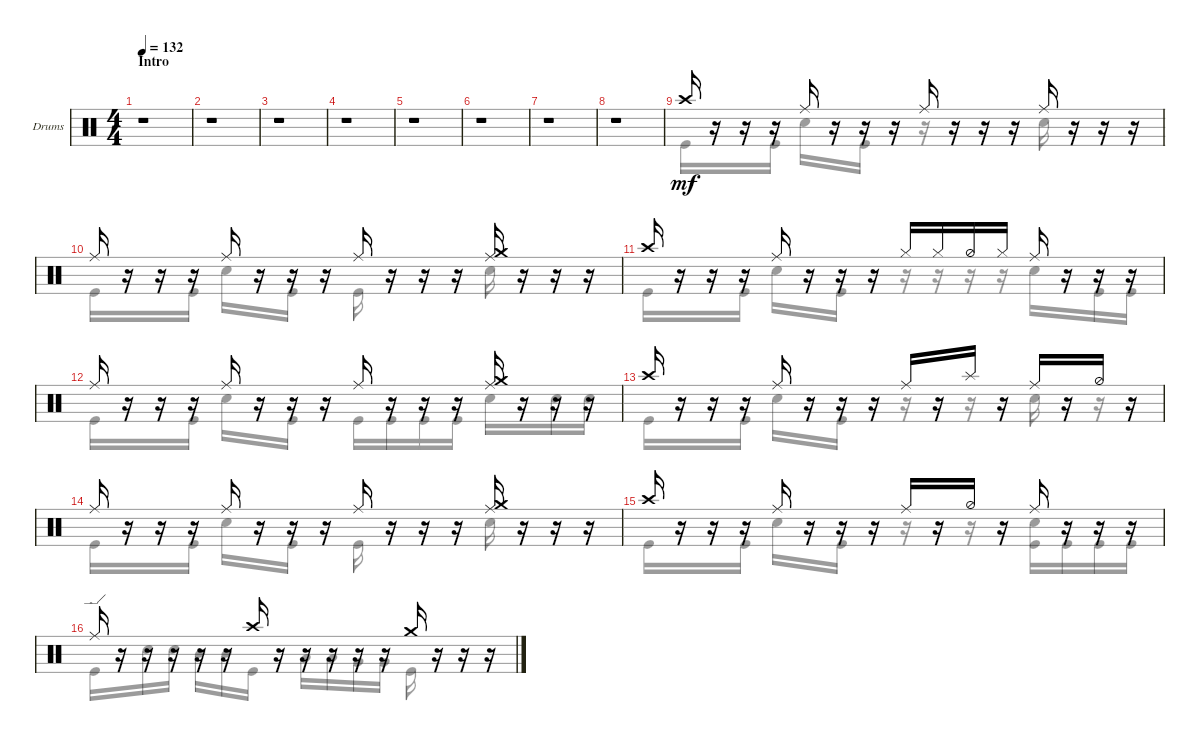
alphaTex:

\defaultSystemsLayout 4
\bracketExtendMode groupsimilarinstruments
\firstSystemTrackNameOrientation horizontal
\otherSystemsTrackNameOrientation horizontal
\track ("Drumkit" "Drums") {instrument percussion}
\staff {score}
\articulation defaults
\voice
\ts (4 4)
\section ("" "Intro")
\tempo 132
\clef neutral
\scale
0.474178
\ks c
r.1{dy mf} |
\scale
0.262911 r.1 |
\scale
0.262911 r.1 |
\scale
0.333333 r.1 |
\scale
0.333333 r.1 |
\scale
0.333333 r.1 |
\scale
0.333333 r.1 |
\scale
0.333333 r.1 |
\scale
0.333333 "Crash high (hit)".16 r.16 r.16 r.16 "Ride (middle)".16 r.16 r.16 r.16 "Ride (middle)".16 r.16 r.16 r.16 "Ride (middle)".16 r.16 r.16 r.16 |
\scale
0.333333 "Ride (middle)".16 r.16 r.16 r.16 "Ride (middle)".16 r.16 r.16 r.16 "Ride (middle)".16 r.16 r.16 r.16 ("Crash medium (hit)" "Ride (middle)").16 r.16 r.16 r.16 |
\scale
0.333333 "Crash high (hit)".16 r.16 r.16 r.16 "Ride (middle)".16 r.16 r.16 r.16 "Hi-Hat (closed)".16 "Hi-Hat (closed)".16 "Hi-Hat (half)".16 "Hi-Hat (closed)".16 "Ride (middle)".16 r.16 r.16 r.16 |
\scale
0.333333 "Ride (middle)".16 r.16 r.16 r.16 "Ride (middle)".16 r.16 r.16 r.16 "Ride (middle)".16 r.16 r.16 r.16 ("Crash medium (hit)" "Ride (middle)").16 r.16 r.16 r.16 |
\scale
0.333333 "Crash high (hit)".16 r.16 r.16 r.16 "Ride (middle)".16 r.16 r.16 r.16 "Ride (middle)".16 r.16 "Splash (hit)".16 r.16 "Ride (middle)".16 r.16 "Hi-Hat (half)".16 r.16 |
\scale
0.333333 "Ride (middle)".16 r.16 r.16 r.16 "Ride (middle)".16 r.16 r.16 r.16 "Ride (middle)".16 r.16 r.16 r.16 ("Crash medium (hit)" "Ride (middle)").16 r.16 r.16 r.16 |
\scale
0.333333 "Crash high (hit)".16 r.16 r.16 r.16 "Ride (middle)".16 r.16 r.16 r.16 "Ride (middle)".16 r.16 "Hi-Hat (half)".16 r.16 "Ride (middle)".16 r.16 r.16 r.16 |
\scale
0.333333 "Ride (edge)".16 r.16 r.16 r.16 r.16 r.16 "Crash high (hit)".16 r.16 r.16 r.16 r.16 r.16 "Crash medium (hit)".16 r.16 r.16 r.16
\voice
\clef neutral
\ottava regular
\simile none
\scale
0.474178
\ks c
|
\scale
0.262911 |
\scale
0.262911 |
\scale
0.333333 |
\scale
0.333333 |
\scale
0.333333 |
\scale
0.333333 |
\scale
0.333333 |
\scale
0.333333 "Kick (hit)".16 r.16 r.16 "Kick (hit)".16 "Snare (hit) 2".16 r.16 "Kick (hit)".16 r.16 r.16 r.16 r.16 r.16 "Snare (hit) 2".16 r.16 r.16 r.16 |
\scale
0.333333 "Kick (hit)".16 r.16 r.16 "Kick (hit)".16 "Snare (hit) 2".16 r.16 "Kick (hit)".16 r.16 "Kick (hit)".16 r.16 r.16 r.16 "Snare (hit) 2".16 r.16 r.16 r.16 |
\scale
0.333333 "Kick (hit)".16 r.16 r.16 "Kick (hit)".16 "Snare (hit) 2".16 r.16 "Kick (hit)".16 r.16 r.16 r.16 r.16 r.16 "Snare (hit) 2".16 r.16 "Kick (hit)".16 "Kick (hit)".16 |
\scale
0.333333 "Kick (hit)".16 r.16 r.16 "Kick (hit)".16 "Snare (hit) 2".16 r.16 "Kick (hit)".16 r.16 "Kick (hit)".16 "Kick (hit)".16 "Kick (hit)".16 "Kick (hit)".16 "Snare (hit) 2".16 r.16 "Snare (hit) 2".16 "Snare (hit) 2".16 |
\scale
0.333333 "Kick (hit)".16 r.16 r.16 "Kick (hit)".16 "Snare (hit) 2".16 r.16 "Kick (hit)".16 r.16 r.16 r.16 r.16 r.16 "Snare (hit) 2".16 r.16 r.16 r.16 |
\scale
0.333333 "Kick (hit)".16 r.16 r.16 "Kick (hit)".16 "Snare (hit) 2".16 r.16 "Kick (hit)".16 r.16 "Kick (hit)".16 r.16 r.16 r.16 "Snare (hit) 2".16 r.16 r.16 r.16 |
\scale
0.333333 "Kick (hit)".16 r.16 r.16 "Kick (hit)".16 "Snare (hit) 2".16 r.16 "Kick (hit)".16 r.16 r.16 r.16 r.16 r.16 ("Snare (hit) 2" "Kick (hit)").16 "Kick (hit)".16 "Kick (hit)".16 "Kick (hit)".16 |
\scale
0.333333 "Kick (hit)".16 r.16 "Snare (hit) 2".16 "Snare (hit) 2".16 "Mid Tom (hit)".16 "Mid Tom (hit)".16 "Kick (hit)".16 r.16 "Low Tom (hit)".16 "Low Tom (hit)".16 "Very Low Tom (hit)".16 "Very Low Tom (hit)".16 "Kick (hit)".16 r.16 r.16 r.16
